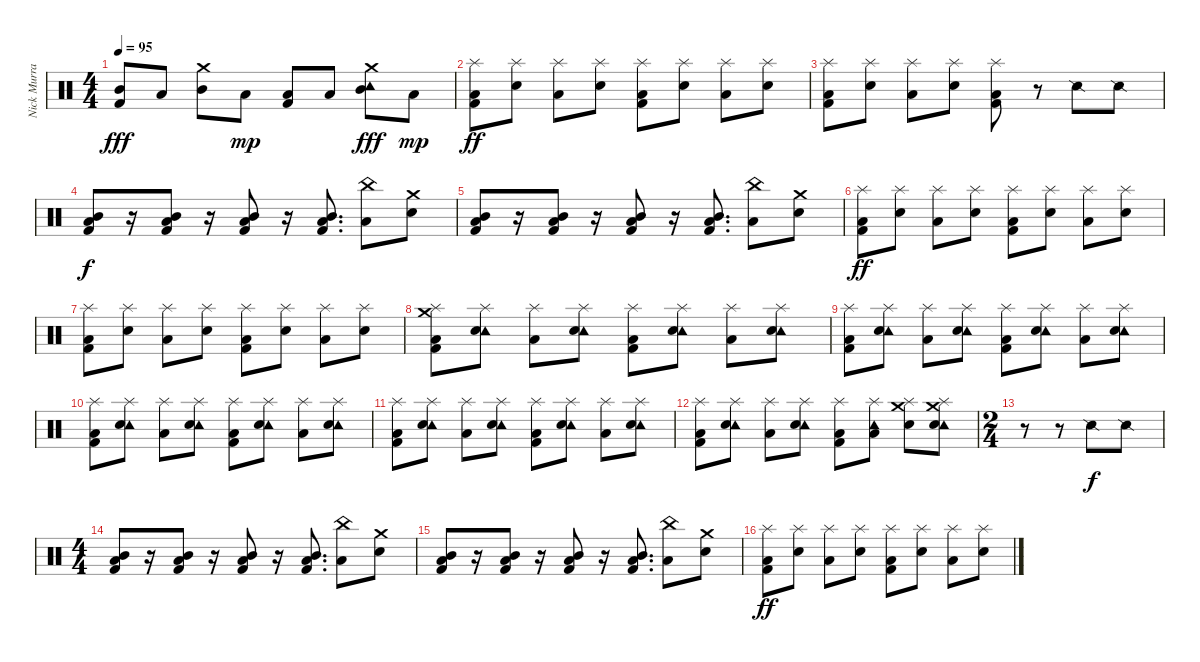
\track ("Nick Murray" "Nick Murra") {instrument percussion}
\staff {score}
\articulation defaults
\ts (4 4)
\tempo 95
\clef neutral
\ks c
("Mid Tom (hit)" "Kick (hit) 2").8{dy fff} "Low Floor Tom (hit)".8 ("Crash medium (hit)" "Mid Tom (hit)").8 "Low Floor Tom (hit)".8{dy mp} ("Low Floor Tom (hit)" "Kick (hit) 2").8 "Low Floor Tom (hit)".8 ("Crash medium (hit)" "Tambourine (hit)" "Mid Tom (hit)").8{dy fff} "Low Floor Tom (hit)".8{dy mp} |
("Splash (hit)" "Low Floor Tom (hit)" "Kick (hit) 2").8{dy ff} ("Splash (hit)" "Electric Snare (hit)").8 ("Splash (hit)" "Low Floor Tom (hit)").8 ("Splash (hit)" "Electric Snare (hit)").8 ("Splash (hit)" "Low Floor Tom (hit)" "Kick (hit) 2").8 ("Splash (hit)" "Electric Snare (hit)").8 ("Splash (hit)" "Low Floor Tom (hit)").8 ("Splash (hit)" "Electric Snare (hit)").8 |
("Splash (hit)" "Low Floor Tom (hit)" "Kick (hit) 2").8 ("Splash (hit)" "Electric Snare (hit)").8 ("Splash (hit)" "Low Floor Tom (hit)").8 ("Splash (hit)" "Electric Snare (hit)").8 ("Splash (hit)" "Low Floor Tom (hit)" "Kick (hit) 2").8 r.8 "Snare (side stick) 2".8 "Snare (side stick) 2".8 |
("Mid Tom (hit)" "Low Floor Tom (hit)" "Kick (hit) 2").8{dy f} r.16 ("Mid Tom (hit)" "Low Floor Tom (hit)" "Kick (hit) 2").8 r.16 ("Mid Tom (hit)" "Low Floor Tom (hit)" "Kick (hit) 2").8 r.16 ("Mid Tom (hit)" "Low Floor Tom (hit)" "Kick (hit) 2").8{d} ("China (hit)" "Low Floor Tom (hit)").8 ("Crash medium (hit)" "Electric Snare (hit)").8 |
("Mid Tom (hit)" "Low Floor Tom (hit)" "Kick (hit) 2").8 r.16 ("Mid Tom (hit)" "Low Floor Tom (hit)" "Kick (hit) 2").8 r.16 ("Mid Tom (hit)" "Low Floor Tom (hit)" "Kick (hit) 2").8 r.16 ("Mid Tom (hit)" "Low Floor Tom (hit)" "Kick (hit) 2").8{d} ("China (hit)" "Low Floor Tom (hit)").8 ("Crash medium (hit)" "Electric Snare (hit)").8 |
("Splash (hit)" "Low Floor Tom (hit)" "Kick (hit) 2").8{dy ff} ("Splash (hit)" "Electric Snare (hit)").8 ("Splash (hit)" "Low Floor Tom (hit)").8 ("Splash (hit)" "Electric Snare (hit)").8 ("Splash (hit)" "Low Floor Tom (hit)" "Kick (hit) 2").8 ("Splash (hit)" "Electric Snare (hit)").8 ("Splash (hit)" "Low Floor Tom (hit)").8 ("Splash (hit)" "Electric Snare (hit)").8 |
("Splash (hit)" "Low Floor Tom (hit)" "Kick (hit) 2").8 ("Splash (hit)" "Electric Snare (hit)").8 ("Splash (hit)" "Low Floor Tom (hit)").8 ("Splash (hit)" "Electric Snare (hit)").8 ("Splash (hit)" "Low Floor Tom (hit)" "Kick (hit) 2").8 ("Splash (hit)" "Electric Snare (hit)").8 ("Splash (hit)" "Low Floor Tom (hit)").8 ("Splash (hit)" "Electric Snare (hit)").8 |
("Crash medium (hit)" "Splash (hit)" "Low Floor Tom (hit)" "Kick (hit) 2").8 ("Tambourine (hit)" "Splash (hit)" "Electric Snare (hit)").8 ("Splash (hit)" "Low Floor Tom (hit)").8 ("Tambourine (hit)" "Splash (hit)" "Electric Snare (hit)").8 ("Splash (hit)" "Low Floor Tom (hit)" "Kick (hit) 2").8 ("Tambourine (hit)" "Splash (hit)" "Electric Snare (hit)").8 ("Splash (hit)" "Low Floor Tom (hit)").8 ("Tambourine (hit)" "Splash (hit)" "Electric Snare (hit)").8 |
("Splash (hit)" "Low Floor Tom (hit)" "Kick (hit) 2").8 ("Tambourine (hit)" "Splash (hit)" "Electric Snare (hit)").8 ("Splash (hit)" "Low Floor Tom (hit)").8 ("Tambourine (hit)" "Splash (hit)" "Electric Snare (hit)").8 ("Splash (hit)" "Low Floor Tom (hit)" "Kick (hit) 2").8 ("Tambourine (hit)" "Splash (hit)" "Electric Snare (hit)").8 ("Splash (hit)" "Low Floor Tom (hit)").8 ("Tambourine (hit)" "Splash (hit)" "Electric Snare (hit)").8 |
("Splash (hit)" "Low Floor Tom (hit)" "Kick (hit) 2").8 ("Tambourine (hit)" "Splash (hit)" "Electric Snare (hit)").8 ("Splash (hit)" "Low Floor Tom (hit)").8 ("Tambourine (hit)" "Splash (hit)" "Electric Snare (hit)").8 ("Splash (hit)" "Low Floor Tom (hit)" "Kick (hit) 2").8 ("Tambourine (hit)" "Splash (hit)" "Electric Snare (hit)").8 ("Splash (hit)" "Low Floor Tom (hit)").8 ("Tambourine (hit)" "Splash (hit)" "Electric Snare (hit)").8 |
("Splash (hit)" "Low Floor Tom (hit)" "Kick (hit) 2").8 ("Tambourine (hit)" "Splash (hit)" "Electric Snare (hit)").8 ("Splash (hit)" "Low Floor Tom (hit)").8 ("Tambourine (hit)" "Splash (hit)" "Electric Snare (hit)").8 ("Splash (hit)" "Low Floor Tom (hit)" "Kick (hit) 2").8 ("Tambourine (hit)" "Splash (hit)" "Electric Snare (hit)").8 ("Splash (hit)" "Low Floor Tom (hit)").8 ("Tambourine (hit)" "Splash (hit)" "Electric Snare (hit)").8 |
("Splash (hit)" "Low Floor Tom (hit)" "Kick (hit) 2").8 ("Tambourine (hit)" "Splash (hit)" "Electric Snare (hit)").8 ("Splash (hit)" "Low Floor Tom (hit)").8 ("Tambourine (hit)" "Splash (hit)" "Electric Snare (hit)").8 ("Splash (hit)" "Low Floor Tom (hit)" "Kick (hit) 2").8 ("Tambourine (hit)" "Splash (hit)" "Low Floor Tom (hit)").8 ("Crash medium (hit)" "Splash (hit)" "Electric Snare (hit)").8 ("Crash medium (hit)" "Tambourine (hit)" "Splash (hit)" "Electric Snare (hit)").8 |
\ts (2 4)
r.8 r.8 "Snare (side stick) 2".8{dy f} "Snare (side stick) 2".8 |
\ts (4 4)
("Mid Tom (hit)" "Low Floor Tom (hit)" "Kick (hit) 2").8 r.16 ("Mid Tom (hit)" "Low Floor Tom (hit)" "Kick (hit) 2").8 r.16 ("Mid Tom (hit)" "Low Floor Tom (hit)" "Kick (hit) 2").8 r.16 ("Mid Tom (hit)" "Low Floor Tom (hit)" "Kick (hit) 2").8{d} ("China (hit)" "Low Floor Tom (hit)").8 ("Crash medium (hit)" "Electric Snare (hit)").8 |
("Mid Tom (hit)" "Low Floor Tom (hit)" "Kick (hit) 2").8 r.16 ("Mid Tom (hit)" "Low Floor Tom (hit)" "Kick (hit) 2").8 r.16 ("Mid Tom (hit)" "Low Floor Tom (hit)" "Kick (hit) 2").8 r.16 ("Mid Tom (hit)" "Low Floor Tom (hit)" "Kick (hit) 2").8{d} ("China (hit)" "Low Floor Tom (hit)").8 ("Crash medium (hit)" "Electric Snare (hit)").8 |
("Splash (hit)" "Low Floor Tom (hit)" "Kick (hit) 2").8{dy ff} ("Splash (hit)" "Electric Snare (hit)").8 ("Splash (hit)" "Low Floor Tom (hit)").8 ("Splash (hit)" "Electric Snare (hit)").8 ("Splash (hit)" "Low Floor Tom (hit)" "Kick (hit) 2").8 ("Splash (hit)" "Electric Snare (hit)").8 ("Splash (hit)" "Low Floor Tom (hit)").8 ("Splash (hit)" "Electric Snare (hit)").8
